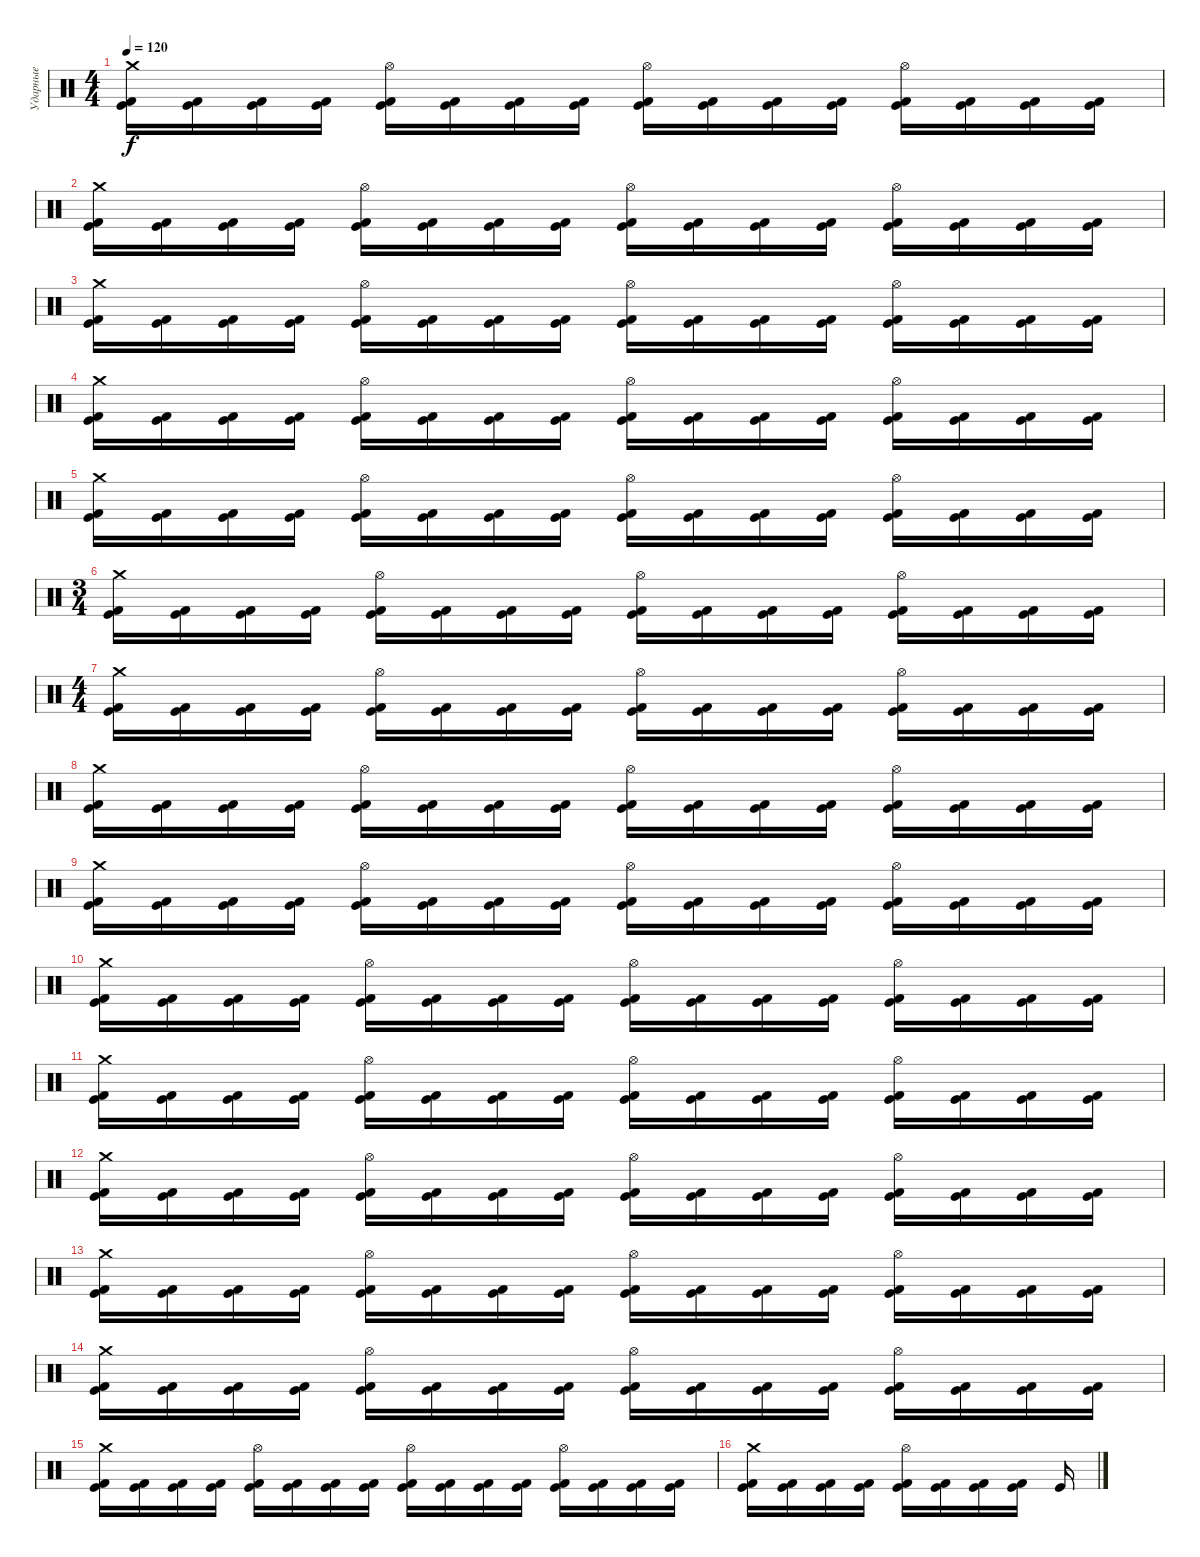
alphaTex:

\track ("Ударные" "Ударные") {instrument percussion}
\staff {score}
\articulation defaults
\ts (4 4)
\tempo 120
\clef neutral
\ks c
("Kick (hit) 2" "Kick (hit)" "Crash medium (hit)").16{dy f} ("Kick (hit) 2" "Kick (hit)").16 ("Kick (hit) 2" "Kick (hit)").16 ("Kick (hit) 2" "Kick (hit)").16 ("Kick (hit) 2" "Kick (hit)" "Hi-Hat (open)").16 ("Kick (hit) 2" "Kick (hit)").16 ("Kick (hit) 2" "Kick (hit)").16 ("Kick (hit) 2" "Kick (hit)").16 ("Kick (hit) 2" "Kick (hit)" "Hi-Hat (open)").16 ("Kick (hit) 2" "Kick (hit)").16 ("Kick (hit) 2" "Kick (hit)").16 ("Kick (hit) 2" "Kick (hit)").16 ("Kick (hit) 2" "Kick (hit)" "Hi-Hat (open)").16 ("Kick (hit) 2" "Kick (hit)").16 ("Kick (hit) 2" "Kick (hit)").16 ("Kick (hit) 2" "Kick (hit)").16 |
("Kick (hit) 2" "Kick (hit)" "Crash medium (hit)").16 ("Kick (hit) 2" "Kick (hit)").16 ("Kick (hit) 2" "Kick (hit)").16 ("Kick (hit) 2" "Kick (hit)").16 ("Kick (hit) 2" "Kick (hit)" "Hi-Hat (open)").16 ("Kick (hit) 2" "Kick (hit)").16 ("Kick (hit) 2" "Kick (hit)").16 ("Kick (hit) 2" "Kick (hit)").16 ("Kick (hit) 2" "Kick (hit)" "Hi-Hat (open)").16 ("Kick (hit) 2" "Kick (hit)").16 ("Kick (hit) 2" "Kick (hit)").16 ("Kick (hit) 2" "Kick (hit)").16 ("Kick (hit) 2" "Kick (hit)" "Hi-Hat (open)").16 ("Kick (hit) 2" "Kick (hit)").16 ("Kick (hit) 2" "Kick (hit)").16 ("Kick (hit) 2" "Kick (hit)").16 |
("Kick (hit) 2" "Kick (hit)" "Crash medium (hit)").16 ("Kick (hit) 2" "Kick (hit)").16 ("Kick (hit) 2" "Kick (hit)").16 ("Kick (hit) 2" "Kick (hit)").16 ("Kick (hit) 2" "Kick (hit)" "Hi-Hat (open)").16 ("Kick (hit) 2" "Kick (hit)").16 ("Kick (hit) 2" "Kick (hit)").16 ("Kick (hit) 2" "Kick (hit)").16 ("Kick (hit) 2" "Kick (hit)" "Hi-Hat (open)").16 ("Kick (hit) 2" "Kick (hit)").16 ("Kick (hit) 2" "Kick (hit)").16 ("Kick (hit) 2" "Kick (hit)").16 ("Kick (hit) 2" "Kick (hit)" "Hi-Hat (open)").16 ("Kick (hit) 2" "Kick (hit)").16 ("Kick (hit) 2" "Kick (hit)").16 ("Kick (hit) 2" "Kick (hit)").16 |
("Kick (hit) 2" "Kick (hit)" "Crash medium (hit)").16 ("Kick (hit) 2" "Kick (hit)").16 ("Kick (hit) 2" "Kick (hit)").16 ("Kick (hit) 2" "Kick (hit)").16 ("Kick (hit) 2" "Kick (hit)" "Hi-Hat (open)").16 ("Kick (hit) 2" "Kick (hit)").16 ("Kick (hit) 2" "Kick (hit)").16 ("Kick (hit) 2" "Kick (hit)").16 ("Kick (hit) 2" "Kick (hit)" "Hi-Hat (open)").16 ("Kick (hit) 2" "Kick (hit)").16 ("Kick (hit) 2" "Kick (hit)").16 ("Kick (hit) 2" "Kick (hit)").16 ("Kick (hit) 2" "Kick (hit)" "Hi-Hat (open)").16 ("Kick (hit) 2" "Kick (hit)").16 ("Kick (hit) 2" "Kick (hit)").16 ("Kick (hit) 2" "Kick (hit)").16 |
("Kick (hit) 2" "Kick (hit)" "Crash medium (hit)").16 ("Kick (hit) 2" "Kick (hit)").16 ("Kick (hit) 2" "Kick (hit)").16 ("Kick (hit) 2" "Kick (hit)").16 ("Kick (hit) 2" "Kick (hit)" "Hi-Hat (open)").16 ("Kick (hit) 2" "Kick (hit)").16 ("Kick (hit) 2" "Kick (hit)").16 ("Kick (hit) 2" "Kick (hit)").16 ("Kick (hit) 2" "Kick (hit)" "Hi-Hat (open)").16 ("Kick (hit) 2" "Kick (hit)").16 ("Kick (hit) 2" "Kick (hit)").16 ("Kick (hit) 2" "Kick (hit)").16 ("Kick (hit) 2" "Kick (hit)" "Hi-Hat (open)").16 ("Kick (hit) 2" "Kick (hit)").16 ("Kick (hit) 2" "Kick (hit)").16 ("Kick (hit) 2" "Kick (hit)").16 |
\ts (3 4)
("Kick (hit) 2" "Kick (hit)" "Crash medium (hit)").16 ("Kick (hit) 2" "Kick (hit)").16 ("Kick (hit) 2" "Kick (hit)").16 ("Kick (hit) 2" "Kick (hit)").16 ("Kick (hit) 2" "Kick (hit)" "Hi-Hat (open)").16 ("Kick (hit) 2" "Kick (hit)").16 ("Kick (hit) 2" "Kick (hit)").16 ("Kick (hit) 2" "Kick (hit)").16 ("Kick (hit) 2" "Kick (hit)" "Hi-Hat (open)").16 ("Kick (hit) 2" "Kick (hit)").16 ("Kick (hit) 2" "Kick (hit)").16 ("Kick (hit) 2" "Kick (hit)").16 ("Kick (hit) 2" "Kick (hit)" "Hi-Hat (open)").16 ("Kick (hit) 2" "Kick (hit)").16 ("Kick (hit) 2" "Kick (hit)").16 ("Kick (hit) 2" "Kick (hit)").16 |
\ts (4 4)
("Kick (hit) 2" "Kick (hit)" "Crash medium (hit)").16 ("Kick (hit) 2" "Kick (hit)").16 ("Kick (hit) 2" "Kick (hit)").16 ("Kick (hit) 2" "Kick (hit)").16 ("Kick (hit) 2" "Kick (hit)" "Hi-Hat (open)").16 ("Kick (hit) 2" "Kick (hit)").16 ("Kick (hit) 2" "Kick (hit)").16 ("Kick (hit) 2" "Kick (hit)").16 ("Kick (hit) 2" "Kick (hit)" "Hi-Hat (open)").16 ("Kick (hit) 2" "Kick (hit)").16 ("Kick (hit) 2" "Kick (hit)").16 ("Kick (hit) 2" "Kick (hit)").16 ("Kick (hit) 2" "Kick (hit)" "Hi-Hat (open)").16 ("Kick (hit) 2" "Kick (hit)").16 ("Kick (hit) 2" "Kick (hit)").16 ("Kick (hit) 2" "Kick (hit)").16 |
("Kick (hit) 2" "Kick (hit)" "Crash medium (hit)").16 ("Kick (hit) 2" "Kick (hit)").16 ("Kick (hit) 2" "Kick (hit)").16 ("Kick (hit) 2" "Kick (hit)").16 ("Kick (hit) 2" "Kick (hit)" "Hi-Hat (open)").16 ("Kick (hit) 2" "Kick (hit)").16 ("Kick (hit) 2" "Kick (hit)").16 ("Kick (hit) 2" "Kick (hit)").16 ("Kick (hit) 2" "Kick (hit)" "Hi-Hat (open)").16 ("Kick (hit) 2" "Kick (hit)").16 ("Kick (hit) 2" "Kick (hit)").16 ("Kick (hit) 2" "Kick (hit)").16 ("Kick (hit) 2" "Kick (hit)" "Hi-Hat (open)").16 ("Kick (hit) 2" "Kick (hit)").16 ("Kick (hit) 2" "Kick (hit)").16 ("Kick (hit) 2" "Kick (hit)").16 |
("Kick (hit) 2" "Kick (hit)" "Crash medium (hit)").16 ("Kick (hit) 2" "Kick (hit)").16 ("Kick (hit) 2" "Kick (hit)").16 ("Kick (hit) 2" "Kick (hit)").16 ("Kick (hit) 2" "Kick (hit)" "Hi-Hat (open)").16 ("Kick (hit) 2" "Kick (hit)").16 ("Kick (hit) 2" "Kick (hit)").16 ("Kick (hit) 2" "Kick (hit)").16 ("Kick (hit) 2" "Kick (hit)" "Hi-Hat (open)").16 ("Kick (hit) 2" "Kick (hit)").16 ("Kick (hit) 2" "Kick (hit)").16 ("Kick (hit) 2" "Kick (hit)").16 ("Kick (hit) 2" "Kick (hit)" "Hi-Hat (open)").16 ("Kick (hit) 2" "Kick (hit)").16 ("Kick (hit) 2" "Kick (hit)").16 ("Kick (hit) 2" "Kick (hit)").16 |
("Kick (hit) 2" "Kick (hit)" "Crash medium (hit)").16 ("Kick (hit) 2" "Kick (hit)").16 ("Kick (hit) 2" "Kick (hit)").16 ("Kick (hit) 2" "Kick (hit)").16 ("Kick (hit) 2" "Kick (hit)" "Hi-Hat (open)").16 ("Kick (hit) 2" "Kick (hit)").16 ("Kick (hit) 2" "Kick (hit)").16 ("Kick (hit) 2" "Kick (hit)").16 ("Kick (hit) 2" "Kick (hit)" "Hi-Hat (open)").16 ("Kick (hit) 2" "Kick (hit)").16 ("Kick (hit) 2" "Kick (hit)").16 ("Kick (hit) 2" "Kick (hit)").16 ("Kick (hit) 2" "Kick (hit)" "Hi-Hat (open)").16 ("Kick (hit) 2" "Kick (hit)").16 ("Kick (hit) 2" "Kick (hit)").16 ("Kick (hit) 2" "Kick (hit)").16 |
("Kick (hit) 2" "Kick (hit)" "Crash medium (hit)").16 ("Kick (hit) 2" "Kick (hit)").16 ("Kick (hit) 2" "Kick (hit)").16 ("Kick (hit) 2" "Kick (hit)").16 ("Kick (hit) 2" "Kick (hit)" "Hi-Hat (open)").16 ("Kick (hit) 2" "Kick (hit)").16 ("Kick (hit) 2" "Kick (hit)").16 ("Kick (hit) 2" "Kick (hit)").16 ("Kick (hit) 2" "Kick (hit)" "Hi-Hat (open)").16 ("Kick (hit) 2" "Kick (hit)").16 ("Kick (hit) 2" "Kick (hit)").16 ("Kick (hit) 2" "Kick (hit)").16 ("Kick (hit) 2" "Kick (hit)" "Hi-Hat (open)").16 ("Kick (hit) 2" "Kick (hit)").16 ("Kick (hit) 2" "Kick (hit)").16 ("Kick (hit) 2" "Kick (hit)").16 |
("Kick (hit) 2" "Kick (hit)" "Crash medium (hit)").16 ("Kick (hit) 2" "Kick (hit)").16 ("Kick (hit) 2" "Kick (hit)").16 ("Kick (hit) 2" "Kick (hit)").16 ("Kick (hit) 2" "Kick (hit)" "Hi-Hat (open)").16 ("Kick (hit) 2" "Kick (hit)").16 ("Kick (hit) 2" "Kick (hit)").16 ("Kick (hit) 2" "Kick (hit)").16 ("Kick (hit) 2" "Kick (hit)" "Hi-Hat (open)").16 ("Kick (hit) 2" "Kick (hit)").16 ("Kick (hit) 2" "Kick (hit)").16 ("Kick (hit) 2" "Kick (hit)").16 ("Kick (hit) 2" "Kick (hit)" "Hi-Hat (open)").16 ("Kick (hit) 2" "Kick (hit)").16 ("Kick (hit) 2" "Kick (hit)").16 ("Kick (hit) 2" "Kick (hit)").16 |
("Kick (hit) 2" "Kick (hit)" "Crash medium (hit)").16 ("Kick (hit) 2" "Kick (hit)").16 ("Kick (hit) 2" "Kick (hit)").16 ("Kick (hit) 2" "Kick (hit)").16 ("Kick (hit) 2" "Kick (hit)" "Hi-Hat (open)").16 ("Kick (hit) 2" "Kick (hit)").16 ("Kick (hit) 2" "Kick (hit)").16 ("Kick (hit) 2" "Kick (hit)").16 ("Kick (hit) 2" "Kick (hit)" "Hi-Hat (open)").16 ("Kick (hit) 2" "Kick (hit)").16 ("Kick (hit) 2" "Kick (hit)").16 ("Kick (hit) 2" "Kick (hit)").16 ("Kick (hit) 2" "Kick (hit)" "Hi-Hat (open)").16 ("Kick (hit) 2" "Kick (hit)").16 ("Kick (hit) 2" "Kick (hit)").16 ("Kick (hit) 2" "Kick (hit)").16 |
("Kick (hit) 2" "Kick (hit)" "Crash medium (hit)").16 ("Kick (hit) 2" "Kick (hit)").16 ("Kick (hit) 2" "Kick (hit)").16 ("Kick (hit) 2" "Kick (hit)").16 ("Kick (hit) 2" "Kick (hit)" "Hi-Hat (open)").16 ("Kick (hit) 2" "Kick (hit)").16 ("Kick (hit) 2" "Kick (hit)").16 ("Kick (hit) 2" "Kick (hit)").16 ("Kick (hit) 2" "Kick (hit)" "Hi-Hat (open)").16 ("Kick (hit) 2" "Kick (hit)").16 ("Kick (hit) 2" "Kick (hit)").16 ("Kick (hit) 2" "Kick (hit)").16 ("Kick (hit) 2" "Kick (hit)" "Hi-Hat (open)").16 ("Kick (hit) 2" "Kick (hit)").16 ("Kick (hit) 2" "Kick (hit)").16 ("Kick (hit) 2" "Kick (hit)").16 |
("Kick (hit) 2" "Kick (hit)" "Crash medium (hit)").16 ("Kick (hit) 2" "Kick (hit)").16 ("Kick (hit) 2" "Kick (hit)").16 ("Kick (hit) 2" "Kick (hit)").16 ("Kick (hit) 2" "Kick (hit)" "Hi-Hat (open)").16 ("Kick (hit) 2" "Kick (hit)").16 ("Kick (hit) 2" "Kick (hit)").16 ("Kick (hit) 2" "Kick (hit)").16 ("Kick (hit) 2" "Kick (hit)" "Hi-Hat (open)").16 ("Kick (hit) 2" "Kick (hit)").16 ("Kick (hit) 2" "Kick (hit)").16 ("Kick (hit) 2" "Kick (hit)").16 ("Kick (hit) 2" "Kick (hit)" "Hi-Hat (open)").16 ("Kick (hit) 2" "Kick (hit)").16 ("Kick (hit) 2" "Kick (hit)").16 ("Kick (hit) 2" "Kick (hit)").16 |
("Kick (hit) 2" "Kick (hit)" "Crash medium (hit)").16 ("Kick (hit) 2" "Kick (hit)").16 ("Kick (hit) 2" "Kick (hit)").16 ("Kick (hit) 2" "Kick (hit)").16 ("Kick (hit) 2" "Kick (hit)" "Hi-Hat (open)").16 ("Kick (hit) 2" "Kick (hit)").16 ("Kick (hit) 2" "Kick (hit)").16 ("Kick (hit) 2" "Kick (hit)").16 "Kick (hit)".16
